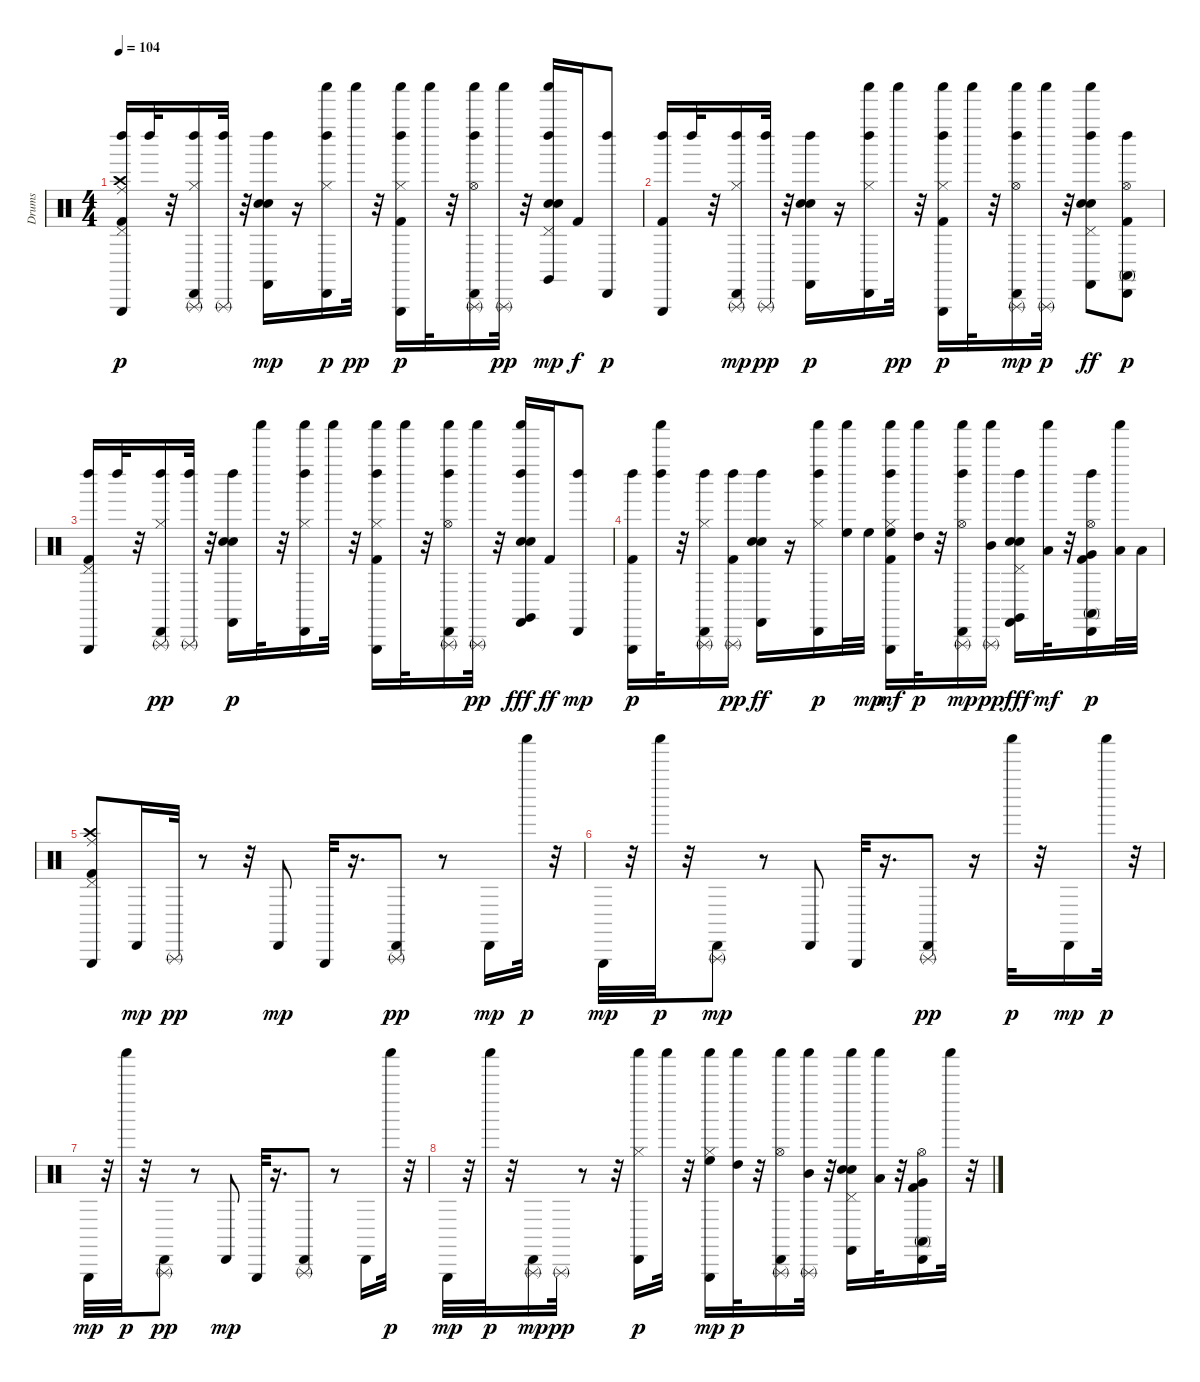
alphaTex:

\track ("Drums" "Drums") {instrument percussion}
\staff {score}
\articulation defaults
\ts (4 4)
\tempo 104
\clef neutral
\ks c
("Ride (middle)" "Pedal Hi-Hat (hit)" "Left Maraca (hit)" "Kick (hit) 2" "Triangle (hit)" "Crash high (hit)").16{dy p} "Left Maraca (hit)".32 r.32 ("Cabasa (hit)" "Hi-Hat (closed)" "Triangle (rnute)" "Left Maraca (hit)").16 ("Triangle (rnute)" "Left Maraca (hit)").32 r.32 ("Castanets (hit)" "Left Maraca (hit)" "Hand Clap (hit)" "Electric Snare (hit)").16{dy mp} r.16 ("Hi-Hat (closed)" "Cabasa (hit)" "Shaker (hit)" "Left Maraca (hit)").16{dy p} "Shaker (hit)".32{dy pp} r.32 ("Hi-Hat (closed)" "Kick (hit) 2" "Shaker (hit)" "Triangle (hit)" "Left Maraca (hit)").16{dy p} "Shaker (hit)".32 r.32 ("Shaker (hit)" "Cabasa (hit)" "Hi-Hat (open)" "Triangle (rnute)" "Left Maraca (hit)").16 ("Shaker (hit)" "Triangle (rnute)").32{dy pp} r.32 ("Pedal Hi-Hat (hit)" "Hand Clap (hit)" "Shaker (hit)" "Claves (hit)" "Left Maraca (hit)" "Electric Snare (hit)").16{dy mp} "Kick (hit) 2".16{dy f} ("Cabasa (hit)" "Left Maraca (hit)").8{dy p} |
("Triangle (hit)" "Left Maraca (hit)" "Kick (hit) 2").16 "Left Maraca (hit)".32 r.32 ("Triangle (rnute)" "Left Maraca (hit)" "Hi-Hat (closed)" "Cabasa (hit)").16{dy mp} ("Left Maraca (hit)" "Triangle (rnute)").32{dy pp} r.32 ("Electric Snare (hit)" "Castanets (hit)" "Hand Clap (hit)" "Left Maraca (hit)").16{dy p} r.16 ("Cabasa (hit)" "Left Maraca (hit)" "Shaker (hit)" "Hi-Hat (closed)").16 "Shaker (hit)".32{dy pp} r.32 ("Hi-Hat (closed)" "Kick (hit) 2" "Triangle (hit)" "Left Maraca (hit)" "Shaker (hit)").16{dy p} "Shaker (hit)".32 r.32 ("Left Maraca (hit)" "Triangle (rnute)" "Hi-Hat (open)" "Shaker (hit)" "Cabasa (hit)").16{dy mp} ("Triangle (rnute)" "Shaker (hit)").32{dy p} r.32 ("Pedal Hi-Hat (hit)" "Shaker (hit)" "Hand Clap (hit)" "Left Maraca (hit)" "Electric Snare (hit)" "Castanets (hit)").8{dy ff} ("Cabasa (hit)" "Hi-Hat (open)" "Kick (hit) 2" "Left Maraca (hit)" "Conga high (mute)").8{dy p} |
("Kick (hit) 2" "Left Maraca (hit)" "Triangle (hit)" "Pedal Hi-Hat (hit)").16 "Left Maraca (hit)".32 r.32 ("Cabasa (hit)" "Hi-Hat (closed)" "Left Maraca (hit)" "Triangle (rnute)").16{dy pp} ("Triangle (rnute)" "Left Maraca (hit)").32 r.32 ("Electric Snare (hit)" "Castanets (hit)" "Hand Clap (hit)" "Left Maraca (hit)").16{dy p} "Shaker (hit)".32 r.32 ("Hi-Hat (closed)" "Cabasa (hit)" "Left Maraca (hit)" "Shaker (hit)").16 "Shaker (hit)".32 r.32 ("Left Maraca (hit)" "Triangle (hit)" "Shaker (hit)" "Kick (hit) 2" "Hi-Hat (closed)").16 "Shaker (hit)".32 r.32 ("Hi-Hat (open)" "Triangle (rnute)" "Cabasa (hit)" "Shaker (hit)" "Left Maraca (hit)").16 ("Shaker (hit)" "Triangle (rnute)").32{dy pp} r.32 ("Shaker (hit)" "Electric Snare (hit)" "Claves (hit)" "Left Maraca (hit)" "Castanets (hit)" "Hand Clap (hit)").16{dy fff} "Kick (hit) 2".16{dy ff} ("Left Maraca (hit)" "Cabasa (hit)").8{dy mp} |
("Triangle (hit)" "Kick (hit) 2" "Left Maraca (hit)").16{dy p} ("Left Maraca (hit)" "Shaker (hit)").32 r.32 ("Hi-Hat (closed)" "Triangle (rnute)" "Cabasa (hit)" "Left Maraca (hit)").16 ("Left Maraca (hit)" "Kick (hit) 2" "Triangle (rnute)").16{dy pp} ("Left Maraca (hit)" "Electric Snare (hit)" "Hand Clap (hit)" "Castanets (hit)").16{dy ff} r.16 ("Hi-Hat (closed)" "Cabasa (hit)" "Left Maraca (hit)" "Shaker (hit)").16{dy p} ("High Floor Tom (hit)" "Shaker (hit)").32 "High Floor Tom (hit)".32{dy mp} ("Triangle (hit)" "Left Maraca (hit)" "Hi-Hat (closed)" "Shaker (hit)" "High Floor Tom (hit)" "Kick (hit) 2").16{dy mf} ("Shaker (hit)" "High Tom (hit)").32{dy p} r.32 ("Hi-Hat (open)" "Shaker (hit)" "Triangle (rnute)" "Left Maraca (hit)" "Cabasa (hit)").16{dy mp} ("Shaker (hit)" "Mid Tom (hit)" "Triangle (rnute)").16{dy pp} ("Claves (hit)" "Castanets (hit)" "Pedal Hi-Hat (hit)" "Left Maraca (hit)" "Electric Snare (hit)" "Hand Clap (hit)").16{dy fff} ("Shaker (hit)" "Low Tom (hit)").32{dy mf} r.32 ("Cabasa (hit)" "Conga high (mute)" "Kick (hit) 2" "Very Low Tom (hit)" "Left Maraca (hit)" "Hi-Hat (open)").16{dy p} ("Low Floor Tom (hit)" "Shaker (hit)").32 "Low Floor Tom (hit)".32 |
("Crash high (hit)" "Ride (middle)" "Triangle (hit)" "Pedal Hi-Hat (hit)" "Kick (hit) 2").8 "Cabasa (hit)".16{dy mp} "Triangle (rnute)".32{dy pp} r.8 r.32 "Cabasa (hit)".8{dy mp} "Triangle (hit)".32 r.16{d} ("Cabasa (hit)" "Triangle (rnute)").8{dy pp} r.8 "Cabasa (hit)".16{dy mp} "Shaker (hit)".32{dy p} r.32 |
"Triangle (hit)".32{dy mp} r.32 "Shaker (hit)".32{dy p} r.32 ("Triangle (rnute)" "Cabasa (hit)").8{dy mp} r.8 "Cabasa (hit)".8 "Triangle (hit)".32 r.16{d} ("Cabasa (hit)" "Triangle (rnute)").8{dy pp} r.16 "Shaker (hit)".32{dy p} r.32 "Cabasa (hit)".16{dy mp} "Shaker (hit)".32{dy p} r.32 |
"Triangle (hit)".32{dy mp} r.32 "Shaker (hit)".32{dy p} r.32 ("Cabasa (hit)" "Triangle (rnute)").8{dy pp} r.8 "Cabasa (hit)".8{dy mp} "Triangle (hit)".32 r.16{d} ("Triangle (rnute)" "Cabasa (hit)").8 r.8 "Cabasa (hit)".16 "Shaker (hit)".32{dy p} r.32 |
"Triangle (hit)".32{dy mp} r.32 "Shaker (hit)".32{dy p} r.32 ("Triangle (rnute)" "Cabasa (hit)").16{dy mp} "Triangle (rnute)".32{dy pp} r.8 r.32 ("Hi-Hat (closed)" "Cabasa (hit)" "Shaker (hit)").16{dy p} "Shaker (hit)".32 r.32 ("Triangle (hit)" "Shaker (hit)" "Hi-Hat (closed)" "High Floor Tom (hit)").16{dy mp} ("High Tom (hit)" "Shaker (hit)").32{dy p} r.32 ("Cabasa (hit)" "Shaker (hit)" "Triangle (rnute)" "Hi-Hat (open)").16 ("Triangle (rnute)" "Mid Tom (hit)" "Shaker (hit)").32 r.32 ("Electric Snare (hit)" "Hand Clap (hit)" "Castanets (hit)" "Shaker (hit)" "Pedal Hi-Hat (hit)").16 ("Low Tom (hit)" "Shaker (hit)").32 r.32 ("Kick (hit) 2" "Conga high (mute)" "Cabasa (hit)" "Very Low Tom (hit)" "Hi-Hat (open)").16 "Shaker (hit)".32 r.32
